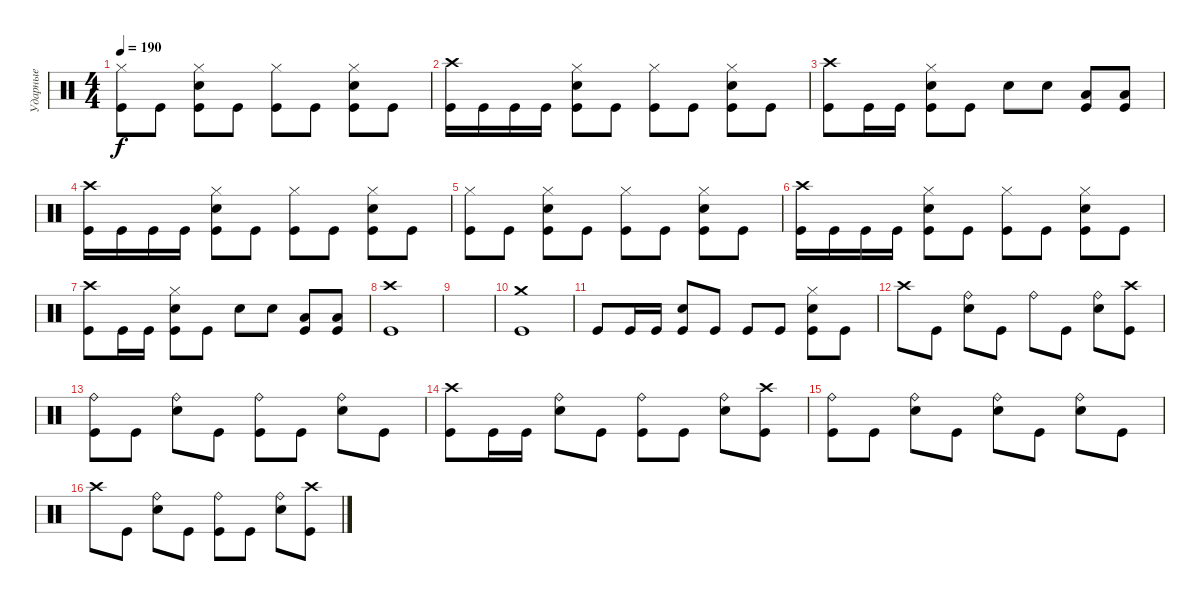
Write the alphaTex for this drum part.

\track ("Ударные" "Ударные") {instrument percussion}
\staff {score}
\articulation defaults
\ts (4 4)
\tempo 190
\clef neutral
\ks c
("Hi-Hat (closed)" "Kick (hit)").8{dy f} "Kick (hit)".8 ("Hi-Hat (closed)" "Electric Snare (hit)" "Kick (hit)").8 "Kick (hit)".8 ("Hi-Hat (closed)" "Kick (hit)").8 "Kick (hit)".8 ("Hi-Hat (closed)" "Electric Snare (hit)" "Kick (hit)").8 "Kick (hit)".8 |
("Crash high (hit)" "Kick (hit)").16 "Kick (hit)".16 "Kick (hit)".16 "Kick (hit)".16 ("Hi-Hat (closed)" "Electric Snare (hit)" "Kick (hit)").8 "Kick (hit)".8 ("Hi-Hat (closed)" "Kick (hit)").8 "Kick (hit)".8 ("Hi-Hat (closed)" "Electric Snare (hit)" "Kick (hit)").8 "Kick (hit)".8 |
("Crash high (hit)" "Kick (hit)").8 "Kick (hit)".16 "Kick (hit)".16 ("Hi-Hat (closed)" "Electric Snare (hit)" "Kick (hit)").8 "Kick (hit)".8 "Electric Snare (hit)".8 "Electric Snare (hit)".8 ("Low Tom (hit)" "Kick (hit)").8 ("Low Tom (hit)" "Kick (hit)").8 |
("Crash high (hit)" "Kick (hit)").16 "Kick (hit)".16 "Kick (hit)".16 "Kick (hit)".16 ("Hi-Hat (closed)" "Electric Snare (hit)" "Kick (hit)").8 "Kick (hit)".8 ("Hi-Hat (closed)" "Kick (hit)").8 "Kick (hit)".8 ("Hi-Hat (closed)" "Electric Snare (hit)" "Kick (hit)").8 "Kick (hit)".8 |
("Hi-Hat (closed)" "Kick (hit)").8 "Kick (hit)".8 ("Hi-Hat (closed)" "Electric Snare (hit)" "Kick (hit)").8 "Kick (hit)".8 ("Hi-Hat (closed)" "Kick (hit)").8 "Kick (hit)".8 ("Hi-Hat (closed)" "Electric Snare (hit)" "Kick (hit)").8 "Kick (hit)".8 |
("Crash high (hit)" "Kick (hit)").16 "Kick (hit)".16 "Kick (hit)".16 "Kick (hit)".16 ("Hi-Hat (closed)" "Electric Snare (hit)" "Kick (hit)").8 "Kick (hit)".8 ("Hi-Hat (closed)" "Kick (hit)").8 "Kick (hit)".8 ("Hi-Hat (closed)" "Electric Snare (hit)" "Kick (hit)").8 "Kick (hit)".8 |
("Crash high (hit)" "Kick (hit)").8 "Kick (hit)".16 "Kick (hit)".16 ("Hi-Hat (closed)" "Electric Snare (hit)" "Kick (hit)").8 "Kick (hit)".8 "Electric Snare (hit)".8 "Electric Snare (hit)".8 ("Low Tom (hit)" "Kick (hit)").8 ("Low Tom (hit)" "Kick (hit)").8 |
("Crash high (hit)" "Kick (hit)").1 |
|
("Crash medium (hit)" "Kick (hit)").1 |
"Kick (hit)".8 "Kick (hit)".16 "Kick (hit)".16 ("Electric Snare (hit)" "Kick (hit)").8 "Kick (hit)".8 "Kick (hit)".8 "Kick (hit)".8 ("Hi-Hat (closed)" "Electric Snare (hit)" "Kick (hit)").8 "Kick (hit)".8 |
"Crash high (hit)".8 "Kick (hit)".8 ("Ride (bell)" "Electric Snare (hit)").8 "Kick (hit)".8 "Ride (bell)".8 "Kick (hit)".8 ("Ride (bell)" "Electric Snare (hit)").8 ("Crash high (hit)" "Kick (hit)").8 |
("Ride (bell)" "Kick (hit)").8 "Kick (hit)".8 ("Ride (bell)" "Electric Snare (hit)").8 "Kick (hit)".8 ("Ride (bell)" "Kick (hit)").8 "Kick (hit)".8 ("Ride (bell)" "Electric Snare (hit)").8 "Kick (hit)".8 |
("Crash high (hit)" "Kick (hit)").8 "Kick (hit)".16 "Kick (hit)".16 ("Ride (bell)" "Electric Snare (hit)").8 "Kick (hit)".8 ("Ride (bell)" "Kick (hit)").8 "Kick (hit)".8 ("Ride (bell)" "Electric Snare (hit)").8 ("Crash high (hit)" "Kick (hit)").8 |
("Ride (bell)" "Kick (hit)").8 "Kick (hit)".8 ("Ride (bell)" "Electric Snare (hit)").8 "Kick (hit)".8 ("Ride (bell)" "Electric Snare (hit)").8 "Kick (hit)".8 ("Ride (bell)" "Electric Snare (hit)").8 "Kick (hit)".8 |
"Crash high (hit)".8 "Kick (hit)".8 ("Ride (bell)" "Electric Snare (hit)").8 "Kick (hit)".8 ("Ride (bell)" "Kick (hit)").8 "Kick (hit)".8 ("Ride (bell)" "Electric Snare (hit)").8 ("Crash high (hit)" "Kick (hit)").8
